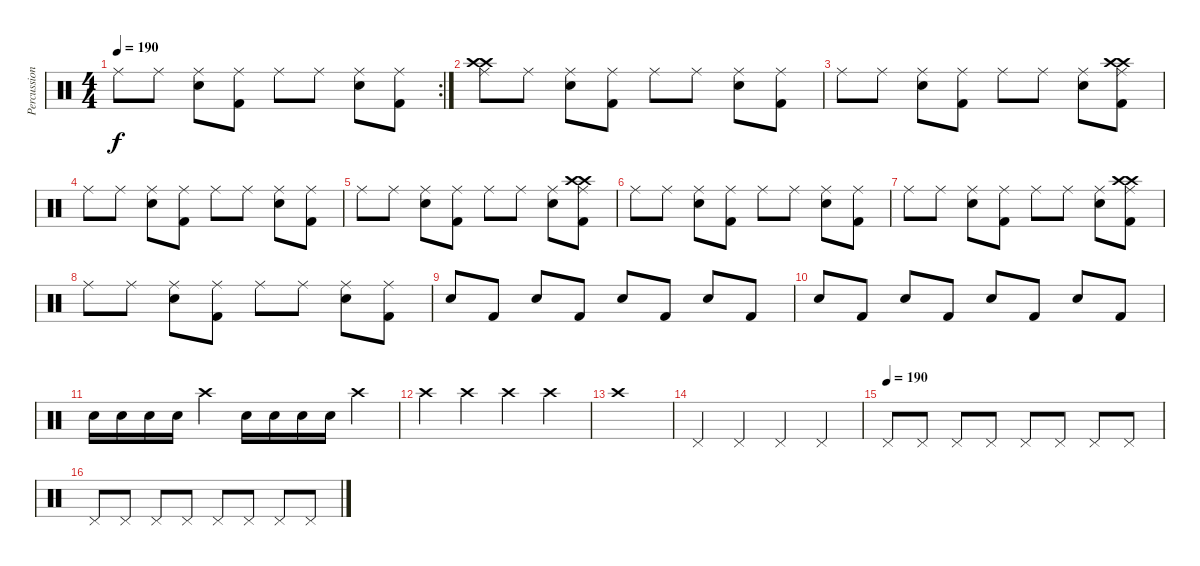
\track ("Percussion" "Percussion") {instrument percussion}
\staff {score}
\articulation defaults
\rc 2
\ts (4 4)
\tempo 190
\clef neutral
\ks c "Ride (middle)".8{dy f} "Ride (middle)".8
("Ride (middle)" "Snare (hit) 2").8 ("Ride (middle)" "Kick (hit) 2").8 "Ride (middle)".8 "Ride (middle)".8 ("Ride (middle)" "Snare (hit) 2").8 ("Ride (middle)" "Kick (hit) 2").8 |
("Ride (middle)" "Crash high (hit)" "Crash high (hit)").8 "Ride (middle)".8 ("Ride (middle)" "Snare (hit) 2").8 ("Ride (middle)" "Kick (hit) 2").8 "Ride (middle)".8 "Ride (middle)".8 ("Ride (middle)" "Snare (hit) 2").8 ("Ride (middle)" "Kick (hit) 2").8 |
"Ride (middle)".8 "Ride (middle)".8 ("Ride (middle)" "Snare (hit) 2").8 ("Ride (middle)" "Kick (hit) 2").8 "Ride (middle)".8 "Ride (middle)".8 ("Ride (middle)" "Snare (hit) 2").8 ("Ride (middle)" "Kick (hit) 2" "Crash high (hit)" "Crash high (hit)").8 |
"Ride (middle)".8 "Ride (middle)".8 ("Ride (middle)" "Snare (hit) 2").8 ("Ride (middle)" "Kick (hit) 2").8 "Ride (middle)".8 "Ride (middle)".8 ("Ride (middle)" "Snare (hit) 2").8 ("Ride (middle)" "Kick (hit) 2").8 |
"Ride (middle)".8 "Ride (middle)".8 ("Ride (middle)" "Snare (hit) 2").8 ("Ride (middle)" "Kick (hit) 2").8 "Ride (middle)".8 "Ride (middle)".8 ("Ride (middle)" "Snare (hit) 2").8 ("Ride (middle)" "Kick (hit) 2" "Crash high (hit)" "Crash high (hit)").8 |
"Ride (middle)".8 "Ride (middle)".8 ("Ride (middle)" "Snare (hit) 2").8 ("Ride (middle)" "Kick (hit) 2").8 "Ride (middle)".8 "Ride (middle)".8 ("Ride (middle)" "Snare (hit) 2").8 ("Ride (middle)" "Kick (hit) 2").8 |
"Ride (middle)".8 "Ride (middle)".8 ("Ride (middle)" "Snare (hit) 2").8 ("Ride (middle)" "Kick (hit) 2").8 "Ride (middle)".8 "Ride (middle)".8 ("Ride (middle)" "Snare (hit) 2").8 ("Ride (middle)" "Kick (hit) 2" "Crash high (hit)" "Crash high (hit)").8 |
"Ride (middle)".8 "Ride (middle)".8 ("Ride (middle)" "Snare (hit) 2").8 ("Ride (middle)" "Kick (hit) 2").8 "Ride (middle)".8 "Ride (middle)".8 ("Ride (middle)" "Snare (hit) 2").8 ("Ride (middle)" "Kick (hit) 2").8 |
"Snare (hit) 2".8 "Kick (hit) 2".8 "Snare (hit) 2".8 "Kick (hit) 2".8 "Snare (hit) 2".8 "Kick (hit) 2".8 "Snare (hit) 2".8 "Kick (hit) 2".8 |
"Snare (hit) 2".8 "Kick (hit) 2".8 "Snare (hit) 2".8 "Kick (hit) 2".8 "Snare (hit) 2".8 "Kick (hit) 2".8 "Snare (hit) 2".8 "Kick (hit) 2".8 |
"Snare (hit) 2".16 "Snare (hit) 2".16 "Snare (hit) 2".16 "Snare (hit) 2".16 "Crash high (hit)".4 "Snare (hit) 2".16 "Snare (hit) 2".16 "Snare (hit) 2".16 "Snare (hit) 2".16 "Crash high (hit)".4 |
"Crash high (hit)".4 "Crash high (hit)".4 "Crash high (hit)".4 "Crash high (hit)".4 |
"Crash high (hit)".1 |
"Pedal Hi-Hat (hit)".4 "Pedal Hi-Hat (hit)".4 "Pedal Hi-Hat (hit)".4 "Pedal Hi-Hat (hit)".4 |
\tempo (190)
"Pedal Hi-Hat (hit)".8 "Pedal Hi-Hat (hit)".8 "Pedal Hi-Hat (hit)".8 "Pedal Hi-Hat (hit)".8 "Pedal Hi-Hat (hit)".8 "Pedal Hi-Hat (hit)".8 "Pedal Hi-Hat (hit)".8 "Pedal Hi-Hat (hit)".8 |
"Pedal Hi-Hat (hit)".8 "Pedal Hi-Hat (hit)".8 "Pedal Hi-Hat (hit)".8 "Pedal Hi-Hat (hit)".8 "Pedal Hi-Hat (hit)".8 "Pedal Hi-Hat (hit)".8 "Pedal Hi-Hat (hit)".8 "Pedal Hi-Hat (hit)".8
